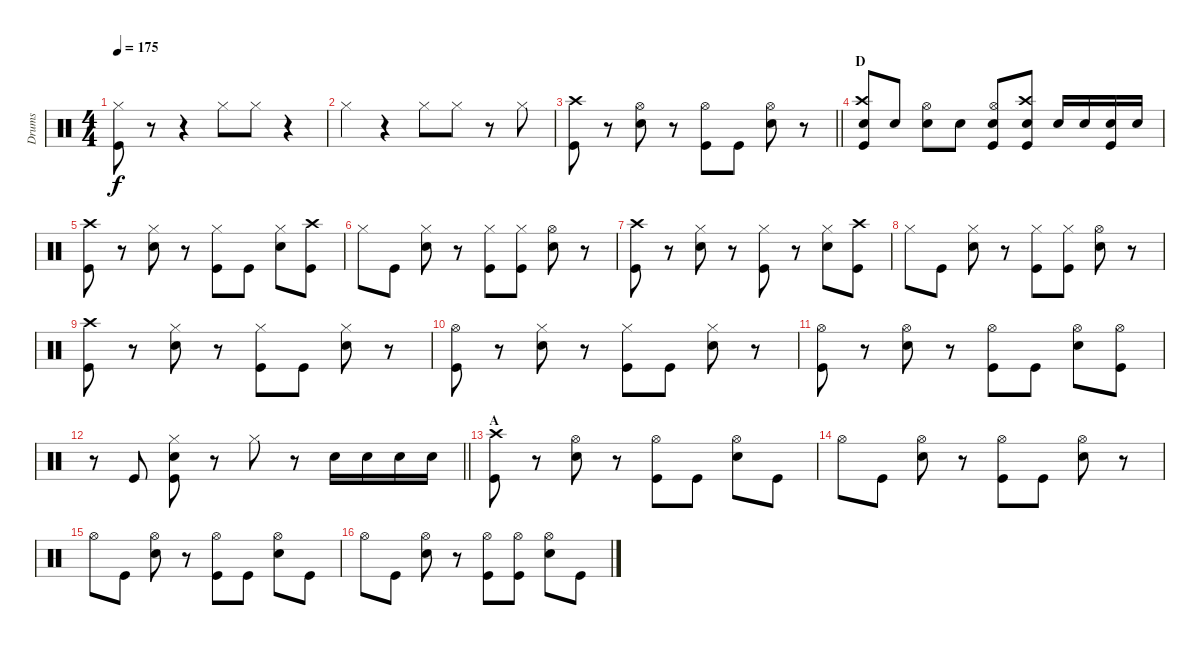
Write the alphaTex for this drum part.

\track ("Drums" "Drums") {instrument percussion}
\staff {score}
\articulation defaults
\ts (4 4)
\tempo 175
\clef neutral
\ks c
("Hi-Hat (closed)" "Kick (hit)").8{dy f} r.8 r.4 "Hi-Hat (closed)".8 "Hi-Hat (closed)".8 r.4 |
"Hi-Hat (closed)".4 r.4 "Hi-Hat (closed)".8 "Hi-Hat (closed)".8 r.8 "Hi-Hat (closed)".8 |
\barLineRight lightlight
("Crash high (hit)" "Kick (hit)").8 r.8 ("Hi-Hat (open)" "Snare (hit) 2").8 r.8 ("Hi-Hat (open)" "Kick (hit)").8 "Kick (hit)".8 ("Hi-Hat (open)" "Snare (hit) 2").8 r.8 |
\section ("" "D")
("Crash high (hit)" "Snare (hit) 2" "Kick (hit)").8 "Snare (hit) 2".8 ("Hi-Hat (open)" "Snare (hit) 2").8 "Snare (hit) 2".8 ("Hi-Hat (open)" "Snare (hit) 2" "Kick (hit)").8 ("Crash high (hit)" "Snare (hit) 2" "Kick (hit)").8 "Snare (hit) 2".16 "Snare (hit) 2".16 ("Snare (hit) 2" "Kick (hit)").16 "Snare (hit) 2".16 |
("Crash high (hit)" "Kick (hit)").8 r.8 ("Hi-Hat (closed)" "Snare (hit) 2").8 r.8 ("Hi-Hat (closed)" "Kick (hit)").8 "Kick (hit)".8 ("Hi-Hat (closed)" "Snare (hit) 2").8 ("Crash high (hit)" "Kick (hit)").8 |
"Hi-Hat (closed)".8 "Kick (hit)".8 ("Hi-Hat (closed)" "Snare (hit) 2").8 r.8 ("Hi-Hat (closed)" "Kick (hit)").8 ("Hi-Hat (closed)" "Kick (hit)").8 ("Hi-Hat (open)" "Snare (hit) 2").8 r.8 |
("Crash high (hit)" "Kick (hit)").8 r.8 ("Hi-Hat (closed)" "Snare (hit) 2").8 r.8 ("Hi-Hat (closed)" "Kick (hit)").8 r.8 ("Hi-Hat (closed)" "Snare (hit) 2").8 ("Crash high (hit)" "Kick (hit)").8 |
"Hi-Hat (closed)".8 "Kick (hit)".8 ("Hi-Hat (closed)" "Snare (hit) 2").8 r.8 ("Hi-Hat (closed)" "Kick (hit)").8 ("Hi-Hat (closed)" "Kick (hit)").8 ("Hi-Hat (open)" "Snare (hit) 2").8 r.8 |
("Crash high (hit)" "Kick (hit)").8 r.8 ("Hi-Hat (closed)" "Snare (hit) 2").8 r.8 ("Hi-Hat (closed)" "Kick (hit)").8 "Kick (hit)".8 ("Hi-Hat (closed)" "Snare (hit) 2").8 r.8 |
("Hi-Hat (open)" "Kick (hit)").8 r.8 ("Hi-Hat (closed)" "Snare (hit) 2").8 r.8 ("Hi-Hat (closed)" "Kick (hit)").8 "Kick (hit)".8 ("Hi-Hat (closed)" "Snare (hit) 2").8 r.8 |
("Hi-Hat (open)" "Kick (hit)").8 r.8 ("Hi-Hat (open)" "Snare (hit) 2").8 r.8 ("Hi-Hat (open)" "Kick (hit)").8 "Kick (hit)".8 ("Hi-Hat (open)" "Snare (hit) 2").8 ("Hi-Hat (open)" "Kick (hit)").8 |
\barLineRight lightlight
r.8 "Kick (hit)".8 ("Hi-Hat (closed)" "Snare (hit) 2" "Kick (hit)").8 r.8 "Hi-Hat (closed)".8 r.8 "Snare (hit) 2".16 "Snare (hit) 2".16 "Snare (hit) 2".16 "Snare (hit) 2".16 |
\section ("" "A")
("Crash high (hit)" "Kick (hit)").8 r.8 ("Hi-Hat (open)" "Snare (hit) 2").8 r.8 ("Hi-Hat (open)" "Kick (hit)").8 "Kick (hit)".8 ("Hi-Hat (open)" "Snare (hit) 2").8 "Kick (hit)".8 |
"Hi-Hat (open)".8 "Kick (hit)".8 ("Hi-Hat (open)" "Snare (hit) 2").8 r.8 ("Hi-Hat (open)" "Kick (hit)").8 "Kick (hit)".8 ("Hi-Hat (open)" "Snare (hit) 2").8 r.8 |
"Hi-Hat (open)".8 "Kick (hit)".8 ("Hi-Hat (open)" "Snare (hit) 2").8 r.8 ("Hi-Hat (open)" "Kick (hit)").8 "Kick (hit)".8 ("Hi-Hat (open)" "Snare (hit) 2").8 "Kick (hit)".8 |
"Hi-Hat (open)".8 "Kick (hit)".8 ("Hi-Hat (open)" "Snare (hit) 2").8 r.8 ("Hi-Hat (open)" "Kick (hit)").8 ("Hi-Hat (open)" "Kick (hit)").8 ("Hi-Hat (open)" "Snare (hit) 2").8 "Kick (hit)".8
